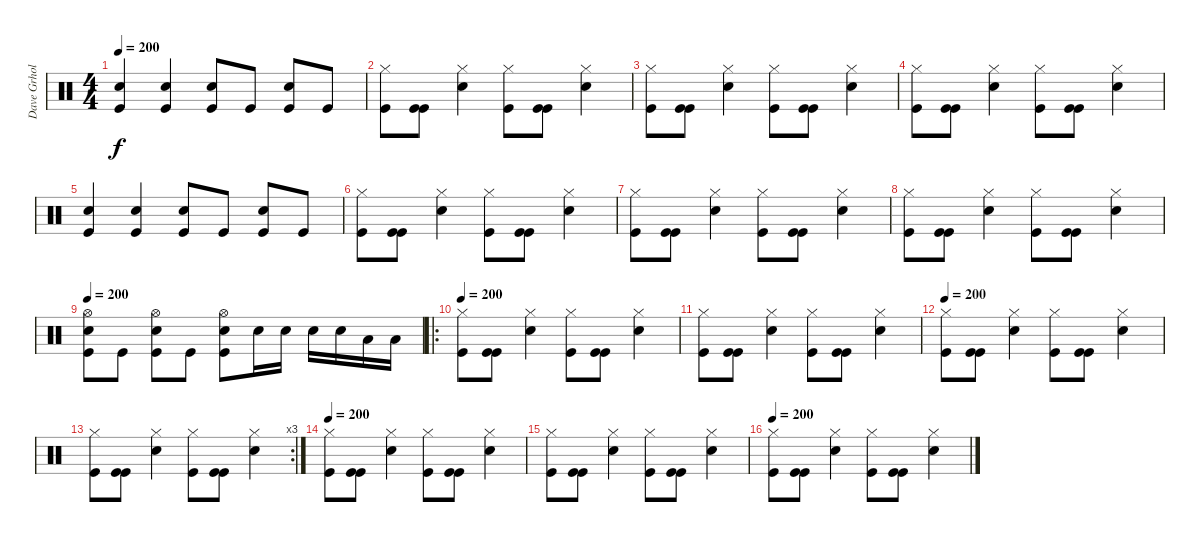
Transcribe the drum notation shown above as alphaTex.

\track ("Dave Grhol" "Dave Grhol") {instrument percussion}
\staff {score}
\articulation defaults
\ts (4 4)
\tempo 200
\clef neutral
\ks c
("Kick (hit)" "Snare (hit) 2").4{dy f} ("Kick (hit)" "Snare (hit) 2").4 ("Kick (hit)" "Snare (hit) 2").8 "Kick (hit)".8 ("Kick (hit)" "Snare (hit) 2").8 "Kick (hit)".8 |
("Hi-Hat (closed)" "Kick (hit)").8 ("Kick (hit)" "Kick (hit)").8 ("Hi-Hat (closed)" "Snare (hit) 2").4 ("Hi-Hat (closed)" "Kick (hit)").8 ("Kick (hit)" "Kick (hit)").8 ("Hi-Hat (closed)" "Snare (hit) 2").4 |
("Hi-Hat (closed)" "Kick (hit)").8 ("Kick (hit)" "Kick (hit)").8 ("Hi-Hat (closed)" "Snare (hit) 2").4 ("Hi-Hat (closed)" "Kick (hit)").8 ("Kick (hit)" "Kick (hit)").8 ("Hi-Hat (closed)" "Snare (hit) 2").4 |
("Hi-Hat (closed)" "Kick (hit)").8 ("Kick (hit)" "Kick (hit)").8 ("Hi-Hat (closed)" "Snare (hit) 2").4 ("Hi-Hat (closed)" "Kick (hit)").8 ("Kick (hit)" "Kick (hit)").8 ("Hi-Hat (closed)" "Snare (hit) 2").4 |
("Kick (hit)" "Snare (hit) 2").4 ("Kick (hit)" "Snare (hit) 2").4 ("Kick (hit)" "Snare (hit) 2").8 "Kick (hit)".8 ("Kick (hit)" "Snare (hit) 2").8 "Kick (hit)".8 |
("Hi-Hat (closed)" "Kick (hit)").8 ("Kick (hit)" "Kick (hit)").8 ("Hi-Hat (closed)" "Snare (hit) 2").4 ("Hi-Hat (closed)" "Kick (hit)").8 ("Kick (hit)" "Kick (hit)").8 ("Hi-Hat (closed)" "Snare (hit) 2").4 |
("Hi-Hat (closed)" "Kick (hit)").8 ("Kick (hit)" "Kick (hit)").8 ("Hi-Hat (closed)" "Snare (hit) 2").4 ("Hi-Hat (closed)" "Kick (hit)").8 ("Kick (hit)" "Kick (hit)").8 ("Hi-Hat (closed)" "Snare (hit) 2").4 |
("Hi-Hat (closed)" "Kick (hit)").8 ("Kick (hit)" "Kick (hit)").8 ("Hi-Hat (closed)" "Snare (hit) 2").4 ("Hi-Hat (closed)" "Kick (hit)").8 ("Kick (hit)" "Kick (hit)").8 ("Hi-Hat (closed)" "Snare (hit) 2").4 |
\tempo 200
("Kick (hit)" "Snare (hit) 2" "Hi-Hat (open)").8 "Kick (hit)".8 ("Kick (hit)" "Snare (hit) 2" "Hi-Hat (open)").8 "Kick (hit)".8 ("Kick (hit)" "Snare (hit) 2" "Hi-Hat (open)").8 "Snare (hit) 2".16 "Snare (hit) 2".16 "Snare (hit) 2".16 "Snare (hit) 2".16 "Low Tom (hit)".16 "Low Tom (hit)".16 |
\ro
\tempo 200
("Hi-Hat (closed)" "Kick (hit)").8 ("Kick (hit)" "Kick (hit)").8 ("Hi-Hat (closed)" "Snare (hit) 2").4 ("Hi-Hat (closed)" "Kick (hit)").8 ("Kick (hit)" "Kick (hit)").8 ("Hi-Hat (closed)" "Snare (hit) 2").4 |
("Hi-Hat (closed)" "Kick (hit)").8 ("Kick (hit)" "Kick (hit)").8 ("Hi-Hat (closed)" "Snare (hit) 2").4 ("Hi-Hat (closed)" "Kick (hit)").8 ("Kick (hit)" "Kick (hit)").8 ("Hi-Hat (closed)" "Snare (hit) 2").4 |
\tempo 200
("Hi-Hat (closed)" "Kick (hit)").8 ("Kick (hit)" "Kick (hit)").8 ("Hi-Hat (closed)" "Snare (hit) 2").4 ("Hi-Hat (closed)" "Kick (hit)").8 ("Kick (hit)" "Kick (hit)").8 ("Hi-Hat (closed)" "Snare (hit) 2").4 |
\rc 3
("Hi-Hat (closed)" "Kick (hit)").8 ("Kick (hit)" "Kick (hit)").8 ("Hi-Hat (closed)" "Snare (hit) 2").4 ("Hi-Hat (closed)" "Kick (hit)").8 ("Kick (hit)" "Kick (hit)").8 ("Hi-Hat (closed)" "Snare (hit) 2").4 |
\tempo 200
("Hi-Hat (closed)" "Kick (hit)").8 ("Kick (hit)" "Kick (hit)").8 ("Hi-Hat (closed)" "Snare (hit) 2").4 ("Hi-Hat (closed)" "Kick (hit)").8 ("Kick (hit)" "Kick (hit)").8 ("Hi-Hat (closed)" "Snare (hit) 2").4 |
("Hi-Hat (closed)" "Kick (hit)").8 ("Kick (hit)" "Kick (hit)").8 ("Hi-Hat (closed)" "Snare (hit) 2").4 ("Hi-Hat (closed)" "Kick (hit)").8 ("Kick (hit)" "Kick (hit)").8 ("Hi-Hat (closed)" "Snare (hit) 2").4 |
\tempo 200
("Hi-Hat (closed)" "Kick (hit)").8 ("Kick (hit)" "Kick (hit)").8 ("Hi-Hat (closed)" "Snare (hit) 2").4 ("Hi-Hat (closed)" "Kick (hit)").8 ("Kick (hit)" "Kick (hit)").8 ("Hi-Hat (closed)" "Snare (hit) 2").4
